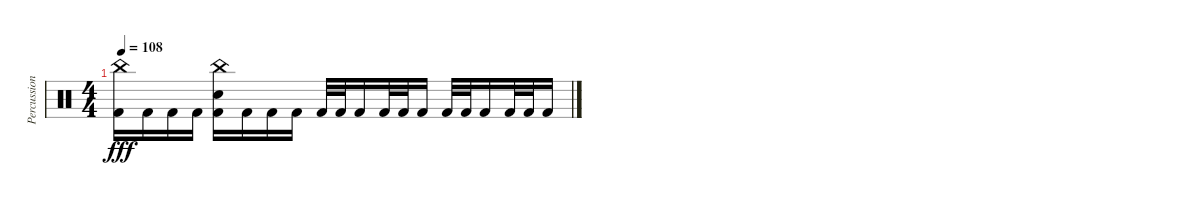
\track ("Percussion" "Percussion") {instrument percussion}
\staff {score}
\articulation defaults
\ts (4 4)
\tempo 108
\clef neutral
\ks c
("China (hit)" "Kick (hit) 2").16{dy fff} "Kick (hit) 2".16 "Kick (hit) 2".16 "Kick (hit) 2".16 ("China (hit)" "Electric Snare (hit)" "Kick (hit) 2").16 "Kick (hit) 2".16 "Kick (hit) 2".16 "Kick (hit) 2".16 "Kick (hit) 2".32 "Kick (hit) 2".32 "Kick (hit) 2".16 "Kick (hit) 2".32 "Kick (hit) 2".32 "Kick (hit) 2".16 "Kick (hit) 2".32 "Kick (hit) 2".32 "Kick (hit) 2".16 "Kick (hit) 2".32 "Kick (hit) 2".32 "Kick (hit) 2".16
